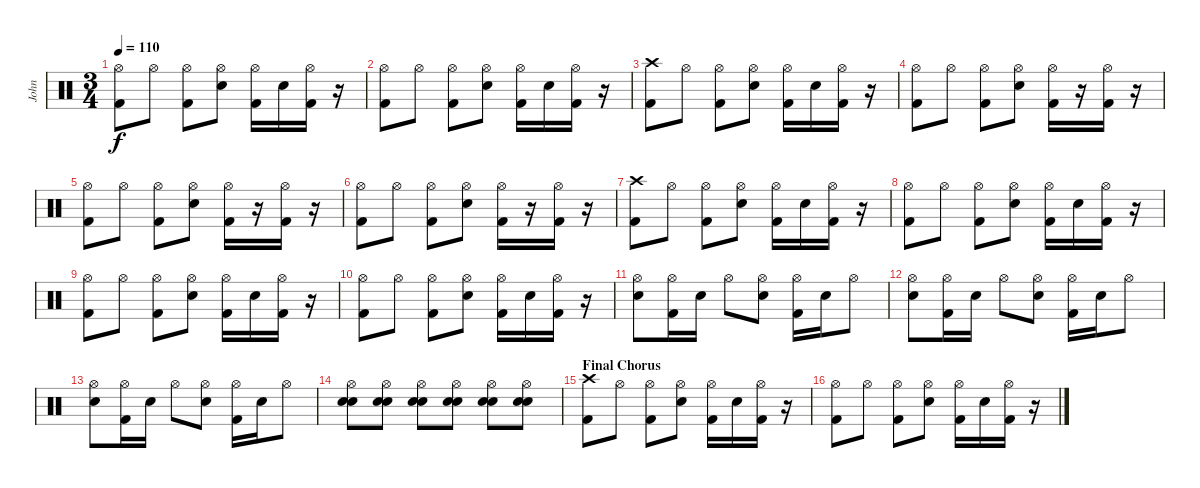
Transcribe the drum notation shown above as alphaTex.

\track ("John" "John") {instrument percussion}
\staff {score}
\articulation defaults
\ts (3 4)
\tempo 110
\clef neutral
\ks c
("Hi-Hat (open)" "Kick (hit) 2").8{dy f} "Hi-Hat (open)".8 ("Hi-Hat (open)" "Kick (hit) 2").8 ("Hi-Hat (open)" "Electric Snare (hit)").8 ("Hi-Hat (open)" "Kick (hit) 2").16 "Electric Snare (hit)".16 ("Hi-Hat (open)" "Kick (hit) 2").16 r.16 |
("Hi-Hat (open)" "Kick (hit) 2").8 "Hi-Hat (open)".8 ("Hi-Hat (open)" "Kick (hit) 2").8 ("Hi-Hat (open)" "Electric Snare (hit)").8 ("Hi-Hat (open)" "Kick (hit) 2").16 "Electric Snare (hit)".16 ("Hi-Hat (open)" "Kick (hit) 2").16 r.16 |
("Crash high (hit)" "Kick (hit) 2").8 "Hi-Hat (open)".8 ("Hi-Hat (open)" "Kick (hit) 2").8 ("Hi-Hat (open)" "Electric Snare (hit)").8 ("Hi-Hat (open)" "Kick (hit) 2").16 "Electric Snare (hit)".16 ("Hi-Hat (open)" "Kick (hit) 2").16 r.16 |
("Hi-Hat (open)" "Kick (hit) 2").8 "Hi-Hat (open)".8 ("Hi-Hat (open)" "Kick (hit) 2").8 ("Hi-Hat (open)" "Electric Snare (hit)").8 ("Hi-Hat (open)" "Kick (hit) 2").16 r.16 ("Hi-Hat (open)" "Kick (hit) 2").16 r.16 |
("Hi-Hat (open)" "Kick (hit) 2").8 "Hi-Hat (open)".8 ("Hi-Hat (open)" "Kick (hit) 2").8 ("Hi-Hat (open)" "Electric Snare (hit)").8 ("Hi-Hat (open)" "Kick (hit) 2").16 r.16 ("Hi-Hat (open)" "Kick (hit) 2").16 r.16 |
("Hi-Hat (open)" "Kick (hit) 2").8 "Hi-Hat (open)".8 ("Hi-Hat (open)" "Kick (hit) 2").8 ("Hi-Hat (open)" "Electric Snare (hit)").8 ("Hi-Hat (open)" "Kick (hit) 2").16 r.16 ("Hi-Hat (open)" "Kick (hit) 2").16 r.16 |
("Crash high (hit)" "Kick (hit) 2").8 "Hi-Hat (open)".8 ("Hi-Hat (open)" "Kick (hit) 2").8 ("Hi-Hat (open)" "Electric Snare (hit)").8 ("Hi-Hat (open)" "Kick (hit) 2").16 "Electric Snare (hit)".16 ("Hi-Hat (open)" "Kick (hit) 2").16 r.16 |
("Hi-Hat (open)" "Kick (hit) 2").8 "Hi-Hat (open)".8 ("Hi-Hat (open)" "Kick (hit) 2").8 ("Hi-Hat (open)" "Electric Snare (hit)").8 ("Hi-Hat (open)" "Kick (hit) 2").16 "Electric Snare (hit)".16 ("Hi-Hat (open)" "Kick (hit) 2").16 r.16 |
("Hi-Hat (open)" "Kick (hit) 2").8 "Hi-Hat (open)".8 ("Hi-Hat (open)" "Kick (hit) 2").8 ("Hi-Hat (open)" "Electric Snare (hit)").8 ("Hi-Hat (open)" "Kick (hit) 2").16 "Electric Snare (hit)".16 ("Hi-Hat (open)" "Kick (hit) 2").16 r.16 |
("Hi-Hat (open)" "Kick (hit) 2").8 "Hi-Hat (open)".8 ("Hi-Hat (open)" "Kick (hit) 2").8 ("Hi-Hat (open)" "Electric Snare (hit)").8 ("Hi-Hat (open)" "Kick (hit) 2").16 "Electric Snare (hit)".16 ("Hi-Hat (open)" "Kick (hit) 2").16 r.16 |
("Hi-Hat (open)" "Electric Snare (hit)").8 ("Hi-Hat (open)" "Kick (hit) 2").16 "Electric Snare (hit)".16 "Hi-Hat (open)".8 ("Hi-Hat (open)" "Electric Snare (hit)").8 ("Hi-Hat (open)" "Kick (hit) 2").16 "Electric Snare (hit)".16 "Hi-Hat (open)".8 |
("Hi-Hat (open)" "Electric Snare (hit)").8 ("Hi-Hat (open)" "Kick (hit) 2").16 "Electric Snare (hit)".16 "Hi-Hat (open)".8 ("Hi-Hat (open)" "Electric Snare (hit)").8 ("Hi-Hat (open)" "Kick (hit) 2").16 "Electric Snare (hit)".16 "Hi-Hat (open)".8 |
("Hi-Hat (open)" "Electric Snare (hit)").8 ("Hi-Hat (open)" "Kick (hit) 2").16 "Electric Snare (hit)".16 "Hi-Hat (open)".8 ("Hi-Hat (open)" "Electric Snare (hit)").8 ("Hi-Hat (open)" "Kick (hit) 2").16 "Electric Snare (hit)".16 "Hi-Hat (open)".8 |
("Hi-Hat (open)" "Electric Snare (hit)" "Electric Snare (hit)").8 ("Hi-Hat (open)" "Electric Snare (hit)" "Electric Snare (hit)").8 ("Hi-Hat (open)" "Electric Snare (hit)" "Electric Snare (hit)").8 ("Hi-Hat (open)" "Electric Snare (hit)" "Electric Snare (hit)").8 ("Hi-Hat (open)" "Electric Snare (hit)" "Electric Snare (hit)").8 ("Hi-Hat (open)" "Electric Snare (hit)" "Electric Snare (hit)").8 |
\section ("" "Final Chorus")
("Crash high (hit)" "Kick (hit) 2").8 "Hi-Hat (open)".8 ("Hi-Hat (open)" "Kick (hit) 2").8 ("Hi-Hat (open)" "Electric Snare (hit)").8 ("Hi-Hat (open)" "Kick (hit) 2").16 "Electric Snare (hit)".16 ("Hi-Hat (open)" "Kick (hit) 2").16 r.16 |
("Hi-Hat (open)" "Kick (hit) 2").8 "Hi-Hat (open)".8 ("Hi-Hat (open)" "Kick (hit) 2").8 ("Hi-Hat (open)" "Electric Snare (hit)").8 ("Hi-Hat (open)" "Kick (hit) 2").16 "Electric Snare (hit)".16 ("Hi-Hat (open)" "Kick (hit) 2").16 r.16
